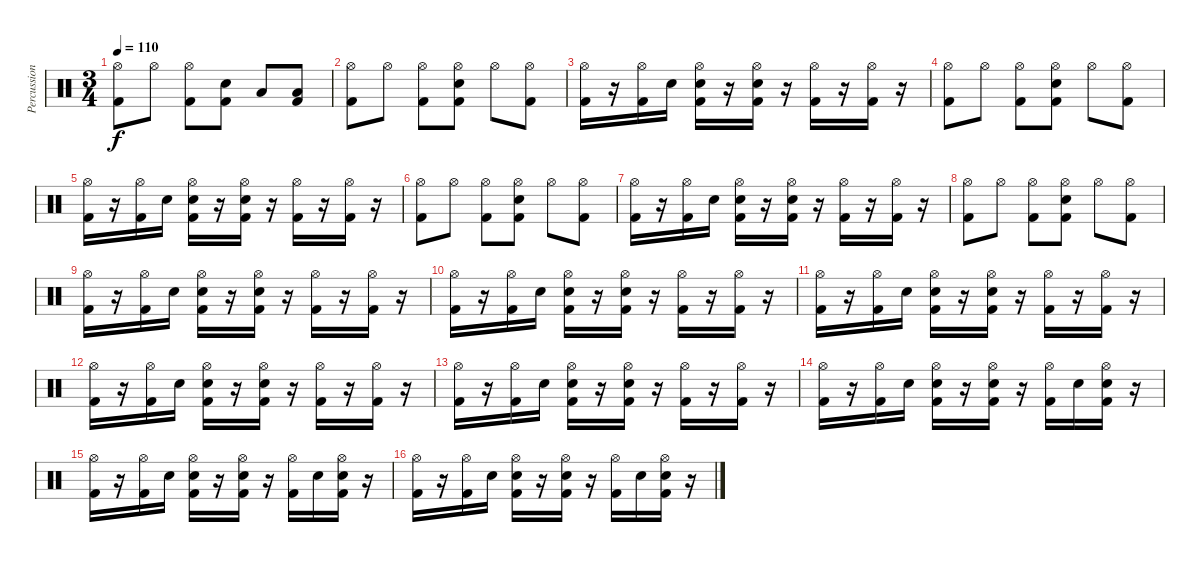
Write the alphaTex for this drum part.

\track ("Percussion" "Percussion") {instrument percussion}
\staff {score}
\articulation defaults
\ts (3 4)
\tempo 110
\clef neutral
\ks c
("Hi-Hat (open)" "Kick (hit) 2").8{dy f} "Hi-Hat (open)".8 ("Hi-Hat (open)" "Kick (hit) 2").8 ("Electric Snare (hit)" "Kick (hit) 2").8 "Low Tom (hit)".8 ("Low Floor Tom (hit)" "Kick (hit) 2").8 |
("Hi-Hat (open)" "Kick (hit) 2").8 "Hi-Hat (open)".8 ("Hi-Hat (open)" "Kick (hit) 2").8 ("Hi-Hat (open)" "Electric Snare (hit)" "Kick (hit) 2").8 "Hi-Hat (open)".8 ("Hi-Hat (open)" "Kick (hit) 2").8 |
("Hi-Hat (open)" "Kick (hit) 2").16 r.16 ("Hi-Hat (open)" "Kick (hit) 2").16 "Electric Snare (hit)".16 ("Hi-Hat (open)" "Electric Snare (hit)" "Kick (hit) 2").16 r.16 ("Hi-Hat (open)" "Electric Snare (hit)" "Kick (hit) 2").16 r.16 ("Hi-Hat (open)" "Kick (hit) 2").16 r.16 ("Hi-Hat (open)" "Kick (hit) 2").16 r.16 |
("Hi-Hat (open)" "Kick (hit) 2").8 "Hi-Hat (open)".8 ("Hi-Hat (open)" "Kick (hit) 2").8 ("Hi-Hat (open)" "Electric Snare (hit)" "Kick (hit) 2").8 "Hi-Hat (open)".8 ("Hi-Hat (open)" "Kick (hit) 2").8 |
("Hi-Hat (open)" "Kick (hit) 2").16 r.16 ("Hi-Hat (open)" "Kick (hit) 2").16 "Electric Snare (hit)".16 ("Hi-Hat (open)" "Electric Snare (hit)" "Kick (hit) 2").16 r.16 ("Hi-Hat (open)" "Electric Snare (hit)" "Kick (hit) 2").16 r.16 ("Hi-Hat (open)" "Kick (hit) 2").16 r.16 ("Hi-Hat (open)" "Kick (hit) 2").16 r.16 |
("Hi-Hat (open)" "Kick (hit) 2").8 "Hi-Hat (open)".8 ("Hi-Hat (open)" "Kick (hit) 2").8 ("Hi-Hat (open)" "Electric Snare (hit)" "Kick (hit) 2").8 "Hi-Hat (open)".8 ("Hi-Hat (open)" "Kick (hit) 2").8 |
("Hi-Hat (open)" "Kick (hit) 2").16 r.16 ("Hi-Hat (open)" "Kick (hit) 2").16 "Electric Snare (hit)".16 ("Hi-Hat (open)" "Electric Snare (hit)" "Kick (hit) 2").16 r.16 ("Hi-Hat (open)" "Electric Snare (hit)" "Kick (hit) 2").16 r.16 ("Hi-Hat (open)" "Kick (hit) 2").16 r.16 ("Hi-Hat (open)" "Kick (hit) 2").16 r.16 |
("Hi-Hat (open)" "Kick (hit) 2").8 "Hi-Hat (open)".8 ("Hi-Hat (open)" "Kick (hit) 2").8 ("Hi-Hat (open)" "Electric Snare (hit)" "Kick (hit) 2").8 "Hi-Hat (open)".8 ("Hi-Hat (open)" "Kick (hit) 2").8 |
("Hi-Hat (open)" "Kick (hit) 2").16 r.16 ("Hi-Hat (open)" "Kick (hit) 2").16 "Electric Snare (hit)".16 ("Hi-Hat (open)" "Electric Snare (hit)" "Kick (hit) 2").16 r.16 ("Hi-Hat (open)" "Electric Snare (hit)" "Kick (hit) 2").16 r.16 ("Hi-Hat (open)" "Kick (hit) 2").16 r.16 ("Hi-Hat (open)" "Kick (hit) 2").16 r.16 |
("Hi-Hat (open)" "Kick (hit) 2").16 r.16 ("Hi-Hat (open)" "Kick (hit) 2").16 "Electric Snare (hit)".16 ("Hi-Hat (open)" "Electric Snare (hit)" "Kick (hit) 2").16 r.16 ("Hi-Hat (open)" "Electric Snare (hit)" "Kick (hit) 2").16 r.16 ("Hi-Hat (open)" "Kick (hit) 2").16 r.16 ("Hi-Hat (open)" "Kick (hit) 2").16 r.16 |
("Hi-Hat (open)" "Kick (hit) 2").16 r.16 ("Hi-Hat (open)" "Kick (hit) 2").16 "Electric Snare (hit)".16 ("Hi-Hat (open)" "Electric Snare (hit)" "Kick (hit) 2").16 r.16 ("Hi-Hat (open)" "Electric Snare (hit)" "Kick (hit) 2").16 r.16 ("Hi-Hat (open)" "Kick (hit) 2").16 r.16 ("Hi-Hat (open)" "Kick (hit) 2").16 r.16 |
("Hi-Hat (open)" "Kick (hit) 2").16 r.16 ("Hi-Hat (open)" "Kick (hit) 2").16 "Electric Snare (hit)".16 ("Hi-Hat (open)" "Electric Snare (hit)" "Kick (hit) 2").16 r.16 ("Hi-Hat (open)" "Electric Snare (hit)" "Kick (hit) 2").16 r.16 ("Hi-Hat (open)" "Kick (hit) 2").16 r.16 ("Hi-Hat (open)" "Kick (hit) 2").16 r.16 |
("Hi-Hat (open)" "Kick (hit) 2").16 r.16 ("Hi-Hat (open)" "Kick (hit) 2").16 "Electric Snare (hit)".16 ("Hi-Hat (open)" "Electric Snare (hit)" "Kick (hit) 2").16 r.16 ("Hi-Hat (open)" "Electric Snare (hit)" "Kick (hit) 2").16 r.16 ("Hi-Hat (open)" "Kick (hit) 2").16 r.16 ("Hi-Hat (open)" "Kick (hit) 2").16 r.16 |
("Hi-Hat (open)" "Kick (hit) 2").16 r.16 ("Hi-Hat (open)" "Kick (hit) 2").16 "Electric Snare (hit)".16 ("Hi-Hat (open)" "Electric Snare (hit)" "Kick (hit) 2").16 r.16 ("Hi-Hat (open)" "Electric Snare (hit)" "Kick (hit) 2").16 r.16 ("Hi-Hat (open)" "Kick (hit) 2").16 "Electric Snare (hit)".16 ("Hi-Hat (open)" "Electric Snare (hit)" "Kick (hit) 2").16 r.16 |
("Hi-Hat (open)" "Kick (hit) 2").16 r.16 ("Hi-Hat (open)" "Kick (hit) 2").16 "Electric Snare (hit)".16 ("Hi-Hat (open)" "Electric Snare (hit)" "Kick (hit) 2").16 r.16 ("Hi-Hat (open)" "Electric Snare (hit)" "Kick (hit) 2").16 r.16 ("Hi-Hat (open)" "Kick (hit) 2").16 "Electric Snare (hit)".16 ("Hi-Hat (open)" "Electric Snare (hit)" "Kick (hit) 2").16 r.16 |
("Hi-Hat (open)" "Kick (hit) 2").16 r.16 ("Hi-Hat (open)" "Kick (hit) 2").16 "Electric Snare (hit)".16 ("Hi-Hat (open)" "Electric Snare (hit)" "Kick (hit) 2").16 r.16 ("Hi-Hat (open)" "Electric Snare (hit)" "Kick (hit) 2").16 r.16 ("Hi-Hat (open)" "Kick (hit) 2").16 "Electric Snare (hit)".16 ("Hi-Hat (open)" "Electric Snare (hit)" "Kick (hit) 2").16 r.16
